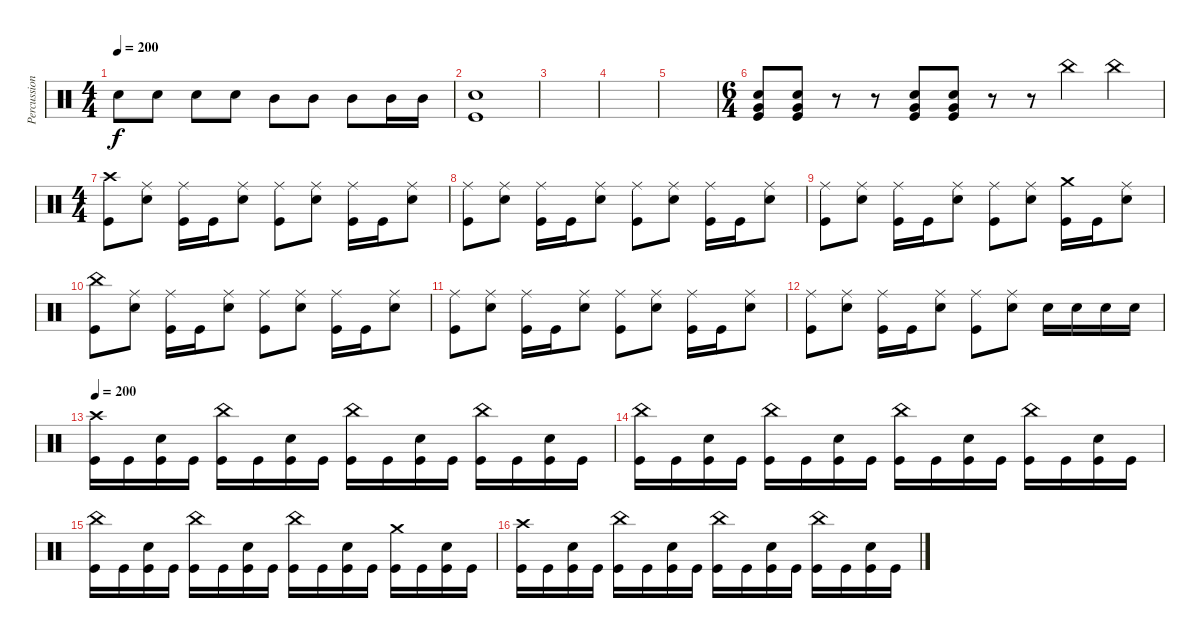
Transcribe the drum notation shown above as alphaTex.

\track ("Percussion" "Percussion") {instrument percussion}
\staff {score}
\articulation defaults
\ts (4 4)
\tempo 200
\clef neutral
\ks c "Snare (hit) 2".8{dy f} "Snare (hit) 2".8 "Snare (hit) 2".8 "Snare (hit) 2".8 "Mid Tom (hit)".8 "Mid Tom (hit)".8 "Mid Tom (hit)".8 "Mid Tom (hit)".16 "Mid Tom (hit)".16
|
("Snare (hit) 2" "Kick (hit)").1 |
|
|
|
\ts (6 4)
("Very Low Tom (hit)" "Snare (hit) 2" "Kick (hit)").8 ("Very Low Tom (hit)" "Snare (hit) 2" "Kick (hit)").8 r.8 r.8 ("Very Low Tom (hit)" "Snare (hit) 2" "Kick (hit)").8 ("Very Low Tom (hit)" "Snare (hit) 2" "Kick (hit)").8 r.8 r.8 "China (hit)".4 "China (hit)".4 |
\ts (4 4)
("Crash high (hit)" "Kick (hit)").8 ("Ride (middle)" "Snare (hit) 2").8 ("Ride (middle)" "Kick (hit)").16 "Kick (hit)".16 ("Ride (middle)" "Snare (hit) 2").8 ("Ride (middle)" "Kick (hit)").8 ("Ride (middle)" "Snare (hit) 2").8 ("Ride (middle)" "Kick (hit)").16 "Kick (hit)".16 ("Ride (middle)" "Snare (hit) 2").8 |
("Ride (middle)" "Kick (hit)").8 ("Ride (middle)" "Snare (hit) 2").8 ("Ride (middle)" "Kick (hit)").16 "Kick (hit)".16 ("Ride (middle)" "Snare (hit) 2").8 ("Ride (middle)" "Kick (hit)").8 ("Ride (middle)" "Snare (hit) 2").8 ("Ride (middle)" "Kick (hit)").16 "Kick (hit)".16 ("Ride (middle)" "Snare (hit) 2").8 |
("Ride (middle)" "Kick (hit)").8 ("Ride (middle)" "Snare (hit) 2").8 ("Ride (middle)" "Kick (hit)").16 "Kick (hit)".16 ("Ride (middle)" "Snare (hit) 2").8 ("Ride (middle)" "Kick (hit)").8 ("Ride (middle)" "Snare (hit) 2").8 ("Crash medium (hit)" "Kick (hit)").16 "Kick (hit)".16 ("Ride (middle)" "Snare (hit) 2").8 |
("China (hit)" "Kick (hit)").8 ("Ride (middle)" "Snare (hit) 2").8 ("Ride (middle)" "Kick (hit)").16 "Kick (hit)".16 ("Ride (middle)" "Snare (hit) 2").8 ("Ride (middle)" "Kick (hit)").8 ("Ride (middle)" "Snare (hit) 2").8 ("Ride (middle)" "Kick (hit)").16 "Kick (hit)".16 ("Ride (middle)" "Snare (hit) 2").8 |
("Ride (middle)" "Kick (hit)").8 ("Ride (middle)" "Snare (hit) 2").8 ("Ride (middle)" "Kick (hit)").16 "Kick (hit)".16 ("Ride (middle)" "Snare (hit) 2").8 ("Ride (middle)" "Kick (hit)").8 ("Ride (middle)" "Snare (hit) 2").8 ("Ride (middle)" "Kick (hit)").16 "Kick (hit)".16 ("Ride (middle)" "Snare (hit) 2").8 |
("Ride (middle)" "Kick (hit)").8 ("Ride (middle)" "Snare (hit) 2").8 ("Ride (middle)" "Kick (hit)").16 "Kick (hit)".16 ("Ride (middle)" "Snare (hit) 2").8 ("Ride (middle)" "Kick (hit)").8 ("Ride (middle)" "Snare (hit) 2").8 "Snare (hit) 2".16 "Snare (hit) 2".16 "Snare (hit) 2".16 "Snare (hit) 2".16 |
\tempo 200
("Crash high (hit)" "Kick (hit)").16 "Kick (hit)".16 ("Snare (hit) 2" "Kick (hit)").16 "Kick (hit)".16 ("China (hit)" "Kick (hit)").16 "Kick (hit)".16 ("Snare (hit) 2" "Kick (hit)").16 "Kick (hit)".16 ("China (hit)" "Kick (hit)").16 "Kick (hit)".16 ("Snare (hit) 2" "Kick (hit)").16 "Kick (hit)".16 ("China (hit)" "Kick (hit)").16 "Kick (hit)".16 ("Snare (hit) 2" "Kick (hit)").16 "Kick (hit)".16 |
("China (hit)" "Kick (hit)").16 "Kick (hit)".16 ("Snare (hit) 2" "Kick (hit)").16 "Kick (hit)".16 ("China (hit)" "Kick (hit)").16 "Kick (hit)".16 ("Snare (hit) 2" "Kick (hit)").16 "Kick (hit)".16 ("China (hit)" "Kick (hit)").16 "Kick (hit)".16 ("Snare (hit) 2" "Kick (hit)").16 "Kick (hit)".16 ("China (hit)" "Kick (hit)").16 "Kick (hit)".16 ("Snare (hit) 2" "Kick (hit)").16 "Kick (hit)".16 |
("China (hit)" "Kick (hit)").16 "Kick (hit)".16 ("Snare (hit) 2" "Kick (hit)").16 "Kick (hit)".16 ("China (hit)" "Kick (hit)").16 "Kick (hit)".16 ("Snare (hit) 2" "Kick (hit)").16 "Kick (hit)".16 ("China (hit)" "Kick (hit)").16 "Kick (hit)".16 ("Snare (hit) 2" "Kick (hit)").16 "Kick (hit)".16 ("Crash medium (hit)" "Kick (hit)").16 "Kick (hit)".16 ("Snare (hit) 2" "Kick (hit)").16 "Kick (hit)".16 |
("Crash high (hit)" "Kick (hit)").16 "Kick (hit)".16 ("Snare (hit) 2" "Kick (hit)").16 "Kick (hit)".16 ("China (hit)" "Kick (hit)").16 "Kick (hit)".16 ("Snare (hit) 2" "Kick (hit)").16 "Kick (hit)".16 ("China (hit)" "Kick (hit)").16 "Kick (hit)".16 ("Snare (hit) 2" "Kick (hit)").16 "Kick (hit)".16 ("China (hit)" "Kick (hit)").16 "Kick (hit)".16 ("Snare (hit) 2" "Kick (hit)").16 "Kick (hit)".16
